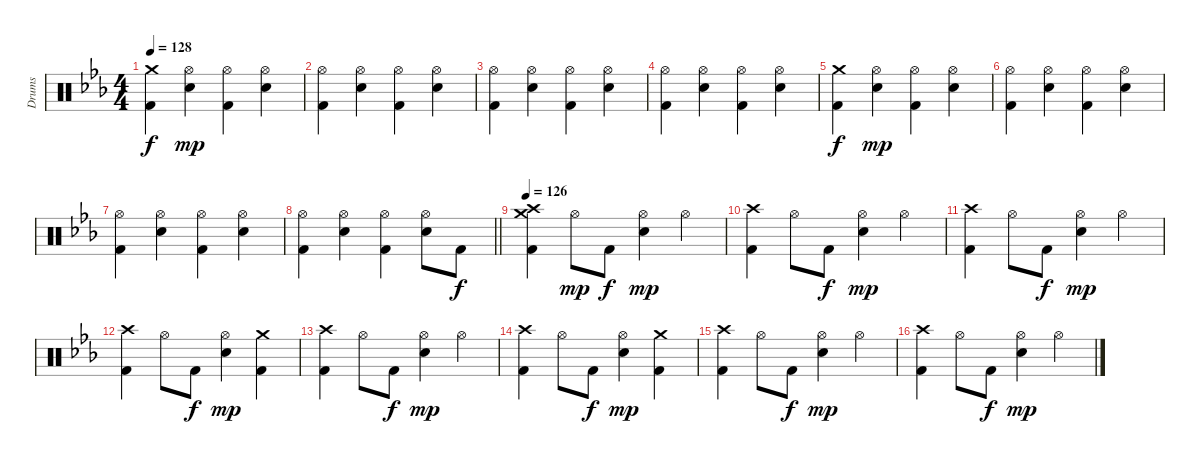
\track ("Drums" "Drums") {instrument percussion}
\staff {score}
\articulation defaults
\ts (4 4)
\tempo 128
\clef neutral
\ks cminor
("Crash medium (hit)" "Kick (hit) 2").4{dy f} ("Hi-Hat (open)" "Electric Snare (hit)").4{dy mp} ("Hi-Hat (open)" "Kick (hit) 2").4 ("Hi-Hat (open)" "Electric Snare (hit)").4 |
("Hi-Hat (open)" "Kick (hit) 2").4 ("Hi-Hat (open)" "Electric Snare (hit)").4 ("Hi-Hat (open)" "Kick (hit) 2").4 ("Hi-Hat (open)" "Electric Snare (hit)").4 |
("Hi-Hat (open)" "Kick (hit) 2").4 ("Hi-Hat (open)" "Electric Snare (hit)").4 ("Hi-Hat (open)" "Kick (hit) 2").4 ("Hi-Hat (open)" "Electric Snare (hit)").4 |
("Hi-Hat (open)" "Kick (hit) 2").4 ("Hi-Hat (open)" "Electric Snare (hit)").4 ("Hi-Hat (open)" "Kick (hit) 2").4 ("Hi-Hat (open)" "Electric Snare (hit)").4 |
("Crash medium (hit)" "Kick (hit) 2").4{dy f} ("Hi-Hat (open)" "Electric Snare (hit)").4{dy mp} ("Hi-Hat (open)" "Kick (hit) 2").4 ("Hi-Hat (open)" "Electric Snare (hit)").4 |
("Hi-Hat (open)" "Kick (hit) 2").4 ("Hi-Hat (open)" "Electric Snare (hit)").4 ("Hi-Hat (open)" "Kick (hit) 2").4 ("Hi-Hat (open)" "Electric Snare (hit)").4 |
("Hi-Hat (open)" "Kick (hit) 2").4 ("Hi-Hat (open)" "Electric Snare (hit)").4 ("Hi-Hat (open)" "Kick (hit) 2").4 ("Hi-Hat (open)" "Electric Snare (hit)").4 |
\barLineRight lightlight
("Hi-Hat (open)" "Kick (hit) 2").4 ("Hi-Hat (open)" "Electric Snare (hit)").4 ("Hi-Hat (open)" "Kick (hit) 2").4 ("Hi-Hat (open)" "Electric Snare (hit)").8 "Kick (hit) 2".8{dy f} |
\tempo 126
("Crash medium (hit)" "Crash high (hit)" "Kick (hit) 2").4 "Hi-Hat (open)".8{dy mp} "Kick (hit) 2".8{dy f} ("Hi-Hat (open)" "Electric Snare (hit)").4{dy mp} "Hi-Hat (open)".4 |
("Crash high (hit)" "Kick (hit) 2").4 "Hi-Hat (open)".8 "Kick (hit) 2".8{dy f} ("Hi-Hat (open)" "Electric Snare (hit)").4{dy mp} "Hi-Hat (open)".4 |
("Crash high (hit)" "Kick (hit) 2").4 "Hi-Hat (open)".8 "Kick (hit) 2".8{dy f} ("Hi-Hat (open)" "Electric Snare (hit)").4{dy mp} "Hi-Hat (open)".4 |
("Crash high (hit)" "Kick (hit) 2").4 "Hi-Hat (open)".8 "Kick (hit) 2".8{dy f} ("Hi-Hat (open)" "Electric Snare (hit)").4{dy mp} ("Crash medium (hit)" "Kick (hit) 2").4 |
("Crash high (hit)" "Kick (hit) 2").4 "Hi-Hat (open)".8 "Kick (hit) 2".8{dy f} ("Hi-Hat (open)" "Electric Snare (hit)").4{dy mp} "Hi-Hat (open)".4 |
("Crash high (hit)" "Kick (hit) 2").4 "Hi-Hat (open)".8 "Kick (hit) 2".8{dy f} ("Hi-Hat (open)" "Electric Snare (hit)").4{dy mp} ("Crash medium (hit)" "Kick (hit) 2").4 |
("Crash high (hit)" "Kick (hit) 2").4 "Hi-Hat (open)".8 "Kick (hit) 2".8{dy f} ("Hi-Hat (open)" "Electric Snare (hit)").4{dy mp} "Hi-Hat (open)".4 |
("Crash high (hit)" "Kick (hit) 2").4 "Hi-Hat (open)".8 "Kick (hit) 2".8{dy f} ("Hi-Hat (open)" "Electric Snare (hit)").4{dy mp} "Hi-Hat (open)".4
